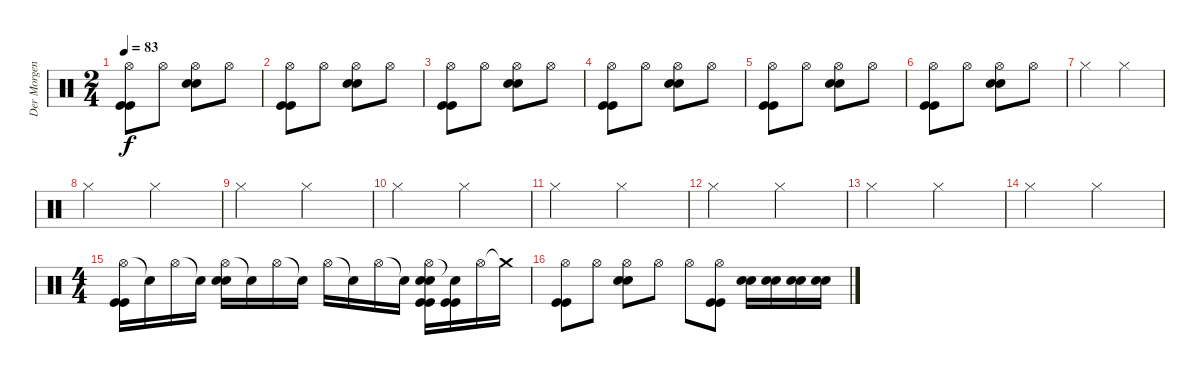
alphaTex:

\track ("Der Morgenstern" "Der Morgen") {instrument percussion}
\staff {score}
\articulation defaults
\ts (2 4)
\tempo 83
\clef neutral
\ks c
("Hi-Hat (open)" "Kick (hit)" "Kick (hit)").8{dy f} "Hi-Hat (open)".8 ("Hi-Hat (open)" "Electric Snare (hit)" "Electric Snare (hit)").8 "Hi-Hat (open)".8 |
("Hi-Hat (open)" "Kick (hit)" "Kick (hit)").8 "Hi-Hat (open)".8 ("Hi-Hat (open)" "Electric Snare (hit)" "Electric Snare (hit)").8 "Hi-Hat (open)".8 |
("Hi-Hat (open)" "Kick (hit)" "Kick (hit)").8 "Hi-Hat (open)".8 ("Hi-Hat (open)" "Electric Snare (hit)" "Electric Snare (hit)").8 "Hi-Hat (open)".8 |
("Hi-Hat (open)" "Kick (hit)" "Kick (hit)").8 "Hi-Hat (open)".8 ("Hi-Hat (open)" "Electric Snare (hit)" "Electric Snare (hit)").8 "Hi-Hat (open)".8 |
("Hi-Hat (open)" "Kick (hit)" "Kick (hit)").8 "Hi-Hat (open)".8 ("Hi-Hat (open)" "Electric Snare (hit)" "Electric Snare (hit)").8 "Hi-Hat (open)".8 |
("Hi-Hat (open)" "Kick (hit)" "Kick (hit)").8 "Hi-Hat (open)".8 ("Hi-Hat (open)" "Electric Snare (hit)" "Electric Snare (hit)").8 "Hi-Hat (open)".8 |
"Hi-Hat (closed)".4 "Hi-Hat (closed)".4 |
"Hi-Hat (closed)".4 "Hi-Hat (closed)".4 |
"Hi-Hat (closed)".4 "Hi-Hat (closed)".4 |
"Hi-Hat (closed)".4 "Hi-Hat (closed)".4 |
"Hi-Hat (closed)".4 "Hi-Hat (closed)".4 |
"Hi-Hat (closed)".4 "Hi-Hat (closed)".4 |
"Hi-Hat (closed)".4 "Hi-Hat (closed)".4 |
"Hi-Hat (closed)".4 "Hi-Hat (closed)".4 |
\ts (4 4)
("Hi-Hat (open)" "Kick (hit)" "Kick (hit)").16 "Snare (hit)"{t}.16 "Hi-Hat (open)".16 "Snare (hit)"{t}.16 ("Hi-Hat (open)" "Electric Snare (hit)" "Electric Snare (hit)").16 "Snare (hit)"{t}.16 "Hi-Hat (open)".16 "Snare (hit)"{t}.16 "Hi-Hat (open)".16 "Snare (hit)"{t}.16 "Hi-Hat (open)".16 "Snare (hit)"{t}.16 ("Hi-Hat (open)" "Electric Snare (hit)" "Electric Snare (hit)" "Kick (hit)" "Kick (hit)").16 ("Snare (hit)"{t} "Kick (hit)" "Kick (hit)").16 "Hi-Hat (open)".16 "Crash medium (hit)"{t}.16 |
("Hi-Hat (open)" "Kick (hit)" "Kick (hit)").8 "Hi-Hat (open)".8 ("Hi-Hat (open)" "Electric Snare (hit)" "Electric Snare (hit)").8 "Hi-Hat (open)".8 "Hi-Hat (open)".8 ("Hi-Hat (open)" "Kick (hit)" "Kick (hit)").8 ("Electric Snare (hit)" "Electric Snare (hit)").16 ("Electric Snare (hit)" "Electric Snare (hit)").16 ("Electric Snare (hit)" "Electric Snare (hit)").16 ("Electric Snare (hit)" "Electric Snare (hit)").16
